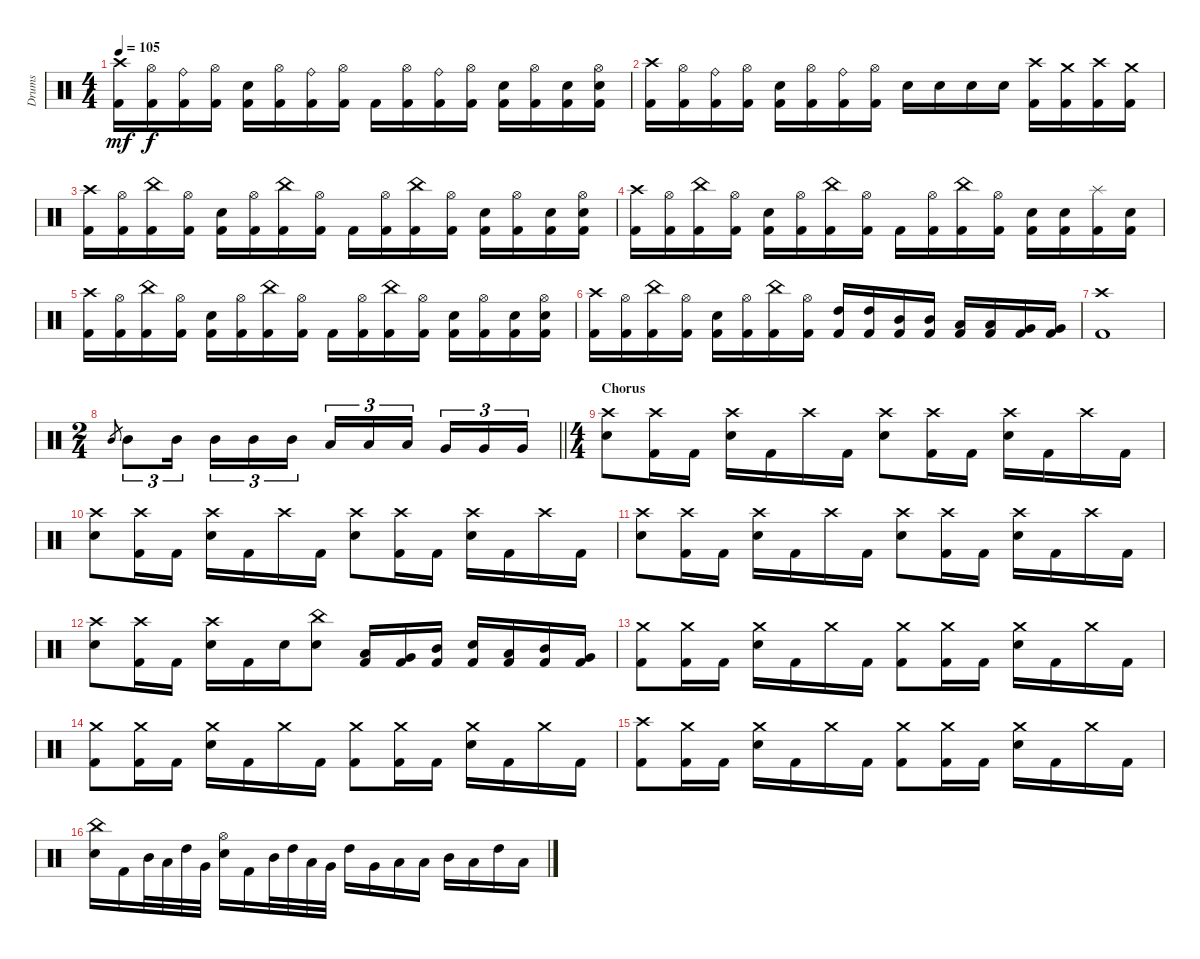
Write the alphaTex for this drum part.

\track ("Drums" "Drums") {instrument percussion}
\staff {score}
\articulation defaults
\ts (4 4)
\tempo 105
\clef neutral
\ks c
("Crash high (hit)" "Kick (hit) 2").16{dy mf} ("Hi-Hat (open)" "Kick (hit) 2").16{dy f} ("Ride (bell)" "Kick (hit) 2").16 ("Hi-Hat (open)" "Kick (hit) 2").16 ("Electric Snare (hit)" "Kick (hit) 2").16 ("Hi-Hat (open)" "Kick (hit) 2").16 ("Ride (bell)" "Kick (hit) 2").16 ("Hi-Hat (open)" "Kick (hit) 2").16 "Kick (hit) 2".16 ("Hi-Hat (open)" "Kick (hit) 2").16 ("Ride (bell)" "Kick (hit) 2").16 ("Hi-Hat (open)" "Kick (hit) 2").16 ("Electric Snare (hit)" "Kick (hit) 2").16 ("Hi-Hat (open)" "Kick (hit) 2").16 ("Electric Snare (hit)" "Kick (hit) 2").16 ("Hi-Hat (open)" "Electric Snare (hit)" "Kick (hit) 2").16 |
("Crash high (hit)" "Kick (hit) 2").16 ("Hi-Hat (open)" "Kick (hit) 2").16 ("Ride (bell)" "Kick (hit) 2").16 ("Hi-Hat (open)" "Kick (hit) 2").16 ("Electric Snare (hit)" "Kick (hit) 2").16 ("Hi-Hat (open)" "Kick (hit) 2").16 ("Ride (bell)" "Kick (hit) 2").16 ("Hi-Hat (open)" "Kick (hit) 2").16 "Electric Snare (hit)".16 "Electric Snare (hit)".16 "Electric Snare (hit)".16 "Electric Snare (hit)".16 ("Crash high (hit)" "Kick (hit) 2").16 ("Crash medium (hit)" "Kick (hit) 2").16 ("Crash high (hit)" "Kick (hit) 2").16 ("Crash medium (hit)" "Kick (hit) 2").16 |
("Crash high (hit)" "Kick (hit) 2").16 ("Hi-Hat (open)" "Kick (hit) 2").16 ("China (hit)" "Kick (hit) 2").16 ("Hi-Hat (open)" "Kick (hit) 2").16 ("Electric Snare (hit)" "Kick (hit) 2").16 ("Hi-Hat (open)" "Kick (hit) 2").16 ("China (hit)" "Kick (hit) 2").16 ("Hi-Hat (open)" "Kick (hit) 2").16 "Kick (hit) 2".16 ("Hi-Hat (open)" "Kick (hit) 2").16 ("China (hit)" "Kick (hit) 2").16 ("Hi-Hat (open)" "Kick (hit) 2").16 ("Electric Snare (hit)" "Kick (hit) 2").16 ("Hi-Hat (open)" "Kick (hit) 2").16 ("Electric Snare (hit)" "Kick (hit) 2").16 ("Hi-Hat (open)" "Electric Snare (hit)" "Kick (hit) 2").16 |
("Crash high (hit)" "Kick (hit) 2").16 ("Hi-Hat (open)" "Kick (hit) 2").16 ("China (hit)" "Kick (hit) 2").16 ("Hi-Hat (open)" "Kick (hit) 2").16 ("Electric Snare (hit)" "Kick (hit) 2").16 ("Hi-Hat (open)" "Kick (hit) 2").16 ("China (hit)" "Kick (hit) 2").16 ("Hi-Hat (open)" "Kick (hit) 2").16 "Kick (hit) 2".16 ("Hi-Hat (open)" "Kick (hit) 2").16 ("China (hit)" "Kick (hit) 2").16 ("Hi-Hat (open)" "Kick (hit) 2").16 ("Electric Snare (hit)" "Kick (hit) 2").16 ("Electric Snare (hit)" "Kick (hit) 2").16 ("Splash (hit)" "Kick (hit) 2").16 ("Electric Snare (hit)" "Kick (hit) 2").16 |
("Crash high (hit)" "Kick (hit) 2").16 ("Hi-Hat (open)" "Kick (hit) 2").16 ("China (hit)" "Kick (hit) 2").16 ("Hi-Hat (open)" "Kick (hit) 2").16 ("Electric Snare (hit)" "Kick (hit) 2").16 ("Hi-Hat (open)" "Kick (hit) 2").16 ("China (hit)" "Kick (hit) 2").16 ("Hi-Hat (open)" "Kick (hit) 2").16 "Kick (hit) 2".16 ("Hi-Hat (open)" "Kick (hit) 2").16 ("China (hit)" "Kick (hit) 2").16 ("Hi-Hat (open)" "Kick (hit) 2").16 ("Electric Snare (hit)" "Kick (hit) 2").16 ("Hi-Hat (open)" "Kick (hit) 2").16 ("Electric Snare (hit)" "Kick (hit) 2").16 ("Hi-Hat (open)" "Electric Snare (hit)" "Kick (hit) 2").16 |
("Crash high (hit)" "Kick (hit) 2").16 ("Hi-Hat (open)" "Kick (hit) 2").16 ("China (hit)" "Kick (hit) 2").16 ("Hi-Hat (open)" "Kick (hit) 2").16 ("Electric Snare (hit)" "Kick (hit) 2").16 ("Hi-Hat (open)" "Kick (hit) 2").16 ("China (hit)" "Kick (hit) 2").16 ("Hi-Hat (open)" "Kick (hit) 2").16 ("High Tom (hit)" "Kick (hit) 2").16 ("High Tom (hit)" "Kick (hit) 2").16 ("Mid Tom (hit)" "Kick (hit) 2").16 ("Mid Tom (hit)" "Kick (hit) 2").16 ("Low Tom (hit)" "Kick (hit) 2").16 ("Low Tom (hit)" "Kick (hit) 2").16 ("Very Low Tom (hit)" "Kick (hit) 2").16 ("Very Low Tom (hit)" "Kick (hit) 2").16 |
("Crash high (hit)" "Kick (hit) 2").1 |
\ts (2 4)
\barLineRight lightlight "Mid Tom (hit)".8{gr} "Mid Tom (hit)".8{tu (3 2)} "Mid Tom (hit)".16{tu (3 2) beam splitsecondary} "Mid Tom (hit)".16{tu (3 2)} "Mid Tom (hit)".16{tu (3 2)} "Mid Tom (hit)".16{tu (3 2)} "Low Tom (hit)".16{tu (3 2)} "Low Tom (hit)".16{tu (3 2)} "Low Tom (hit)".16{tu (3 2) beam splitsecondary} "Very Low Tom (hit)".16{tu (3 2)} "Very Low Tom (hit)".16{tu (3 2)} "Very Low Tom (hit)".16{tu (3 2)}
|
\ts (4 4)
\section ("" "Chorus")
("Crash high (hit)" "Electric Snare (hit)").8 ("Crash high (hit)" "Kick (hit) 2").16 "Kick (hit) 2".16 ("Crash high (hit)" "Electric Snare (hit)").16 "Kick (hit) 2".16 "Crash high (hit)".16 "Kick (hit) 2".16 ("Crash high (hit)" "Electric Snare (hit)").8 ("Crash high (hit)" "Kick (hit) 2").16 "Kick (hit) 2".16 ("Crash high (hit)" "Electric Snare (hit)").16 "Kick (hit) 2".16 "Crash high (hit)".16 "Kick (hit) 2".16 |
("Crash high (hit)" "Electric Snare (hit)").8 ("Crash high (hit)" "Kick (hit) 2").16 "Kick (hit) 2".16 ("Crash high (hit)" "Electric Snare (hit)").16 "Kick (hit) 2".16 "Crash high (hit)".16 "Kick (hit) 2".16 ("Crash high (hit)" "Electric Snare (hit)").8 ("Crash high (hit)" "Kick (hit) 2").16 "Kick (hit) 2".16 ("Crash high (hit)" "Electric Snare (hit)").16 "Kick (hit) 2".16 "Crash high (hit)".16 "Kick (hit) 2".16 |
("Crash high (hit)" "Electric Snare (hit)").8 ("Crash high (hit)" "Kick (hit) 2").16 "Kick (hit) 2".16 ("Crash high (hit)" "Electric Snare (hit)").16 "Kick (hit) 2".16 "Crash high (hit)".16 "Kick (hit) 2".16 ("Crash high (hit)" "Electric Snare (hit)").8 ("Crash high (hit)" "Kick (hit) 2").16 "Kick (hit) 2".16 ("Crash high (hit)" "Electric Snare (hit)").16 "Kick (hit) 2".16 "Crash high (hit)".16 "Kick (hit) 2".16 |
("Crash high (hit)" "Electric Snare (hit)").8 ("Crash high (hit)" "Kick (hit) 2").16 "Kick (hit) 2".16 ("Crash high (hit)" "Electric Snare (hit)").16 "Kick (hit) 2".16 "Electric Snare (hit)".16 ("China (hit)" "Electric Snare (hit)").8 ("Low Tom (hit)" "Kick (hit) 2").16 ("Very Low Tom (hit)" "Kick (hit) 2").16 ("Mid Tom (hit)" "Kick (hit) 2").16 ("Electric Snare (hit)" "Kick (hit) 2").16 ("Low Tom (hit)" "Kick (hit) 2").16 ("Mid Tom (hit)" "Kick (hit) 2").16 ("Very Low Tom (hit)" "Kick (hit) 2").16 |
("Crash medium (hit)" "Kick (hit) 2").8 ("Crash medium (hit)" "Kick (hit) 2").16 "Kick (hit) 2".16 ("Crash medium (hit)" "Electric Snare (hit)").16 "Kick (hit) 2".16 "Crash medium (hit)".16 "Kick (hit) 2".16 ("Crash medium (hit)" "Kick (hit) 2").8 ("Crash medium (hit)" "Kick (hit) 2").16 "Kick (hit) 2".16 ("Crash medium (hit)" "Electric Snare (hit)").16 "Kick (hit) 2".16 "Crash medium (hit)".16 "Kick (hit) 2".16 |
("Crash medium (hit)" "Kick (hit) 2").8 ("Crash medium (hit)" "Kick (hit) 2").16 "Kick (hit) 2".16 ("Crash medium (hit)" "Electric Snare (hit)").16 "Kick (hit) 2".16 "Crash medium (hit)".16 "Kick (hit) 2".16 ("Crash medium (hit)" "Kick (hit) 2").8 ("Crash medium (hit)" "Kick (hit) 2").16 "Kick (hit) 2".16 ("Crash medium (hit)" "Electric Snare (hit)").16 "Kick (hit) 2".16 "Crash medium (hit)".16 "Kick (hit) 2".16 |
("Crash high (hit)" "Kick (hit) 2").8 ("Crash medium (hit)" "Kick (hit) 2").16 "Kick (hit) 2".16 ("Crash medium (hit)" "Electric Snare (hit)").16 "Kick (hit) 2".16 "Crash medium (hit)".16 "Kick (hit) 2".16 ("Crash medium (hit)" "Kick (hit) 2").8 ("Crash medium (hit)" "Kick (hit) 2").16 "Kick (hit) 2".16 ("Crash medium (hit)" "Electric Snare (hit)").16 "Kick (hit) 2".16 "Crash medium (hit)".16 "Kick (hit) 2".16 |
("China (hit)" "Electric Snare (hit)").16 "Kick (hit) 2".16 "Mid Tom (hit)".32 "Low Tom (hit)".32 "High Tom (hit)".32 "Very Low Tom (hit)".32 ("Hi-Hat (open)" "Electric Snare (hit)").16 "Kick (hit) 2".16 "Mid Tom (hit)".32 "High Tom (hit)".32 "Low Tom (hit)".32 "Very Low Tom (hit)".32 "High Tom (hit)".16 "Very Low Tom (hit)".16 "Low Tom (hit)".16 "Low Floor Tom (hit)".16 "Mid Tom (hit)".16 "Low Tom (hit)".16 "High Tom (hit)".16 "Low Floor Tom (hit)".16
